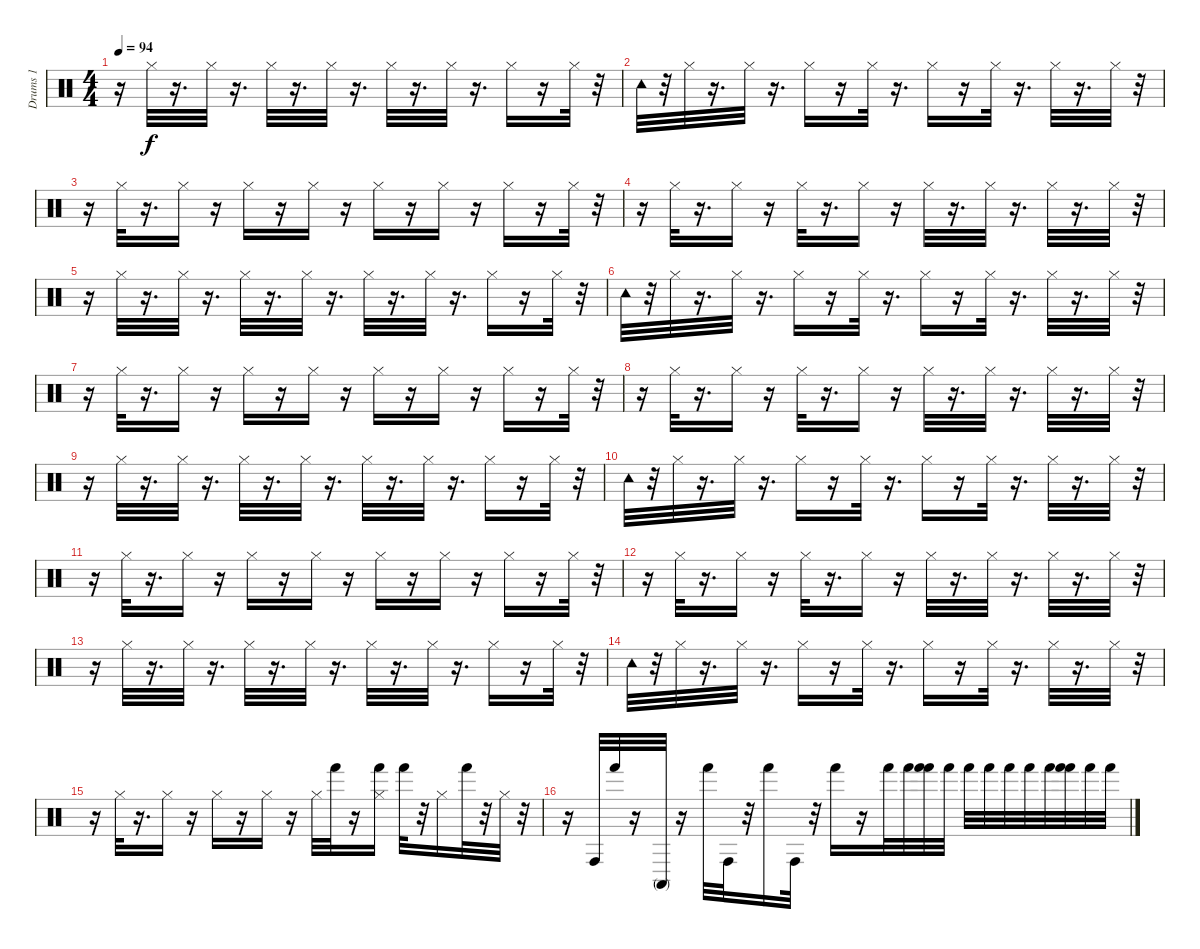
\track ("Drums 1 " "Drums 1 ") {instrument percussion}
\staff {score}
\articulation defaults
\ts (4 4)
\tempo 94
\clef neutral
\ks c
r.16{dy f} "Hi-Hat (closed)".32 r.16{d} "Hi-Hat (closed)".32 r.16{d} "Hi-Hat (closed)".32 r.16{d} "Hi-Hat (closed)".32 r.16{d} "Hi-Hat (closed)".32 r.16{d} "Hi-Hat (closed)".32 r.16{d} "Hi-Hat (closed)".16 r.16 "Hi-Hat (closed)".32 r.32 |
"Tambourine (hit)".32 r.32 "Hi-Hat (closed)".32 r.16{d} "Hi-Hat (closed)".32 r.16{d} "Hi-Hat (closed)".16 r.16 "Hi-Hat (closed)".32 r.16{d} "Hi-Hat (closed)".16 r.16 "Hi-Hat (closed)".32 r.16{d} "Hi-Hat (closed)".32 r.16{d} "Hi-Hat (closed)".32 r.32 |
r.16 "Hi-Hat (closed)".32 r.16{d} "Hi-Hat (closed)".16 r.16 "Hi-Hat (closed)".16 r.16 "Hi-Hat (closed)".16 r.16 "Hi-Hat (closed)".16 r.16 "Hi-Hat (closed)".16 r.16 "Hi-Hat (closed)".16 r.16 "Hi-Hat (closed)".32 r.32 |
r.16 "Hi-Hat (closed)".32 r.16{d} "Hi-Hat (closed)".16 r.16 "Hi-Hat (closed)".32 r.16{d} "Hi-Hat (closed)".16 r.16 "Hi-Hat (closed)".32 r.16{d} "Hi-Hat (closed)".32 r.16{d} "Hi-Hat (closed)".32 r.16{d} "Hi-Hat (closed)".32 r.32 |
r.16 "Hi-Hat (closed)".32 r.16{d} "Hi-Hat (closed)".32 r.16{d} "Hi-Hat (closed)".32 r.16{d} "Hi-Hat (closed)".32 r.16{d} "Hi-Hat (closed)".32 r.16{d} "Hi-Hat (closed)".32 r.16{d} "Hi-Hat (closed)".16 r.16 "Hi-Hat (closed)".32 r.32 |
"Tambourine (hit)".32 r.32 "Hi-Hat (closed)".32 r.16{d} "Hi-Hat (closed)".32 r.16{d} "Hi-Hat (closed)".16 r.16 "Hi-Hat (closed)".32 r.16{d} "Hi-Hat (closed)".16 r.16 "Hi-Hat (closed)".32 r.16{d} "Hi-Hat (closed)".32 r.16{d} "Hi-Hat (closed)".32 r.32 |
r.16 "Hi-Hat (closed)".32 r.16{d} "Hi-Hat (closed)".16 r.16 "Hi-Hat (closed)".16 r.16 "Hi-Hat (closed)".16 r.16 "Hi-Hat (closed)".16 r.16 "Hi-Hat (closed)".16 r.16 "Hi-Hat (closed)".16 r.16 "Hi-Hat (closed)".32 r.32 |
r.16 "Hi-Hat (closed)".32 r.16{d} "Hi-Hat (closed)".16 r.16 "Hi-Hat (closed)".32 r.16{d} "Hi-Hat (closed)".16 r.16 "Hi-Hat (closed)".32 r.16{d} "Hi-Hat (closed)".32 r.16{d} "Hi-Hat (closed)".32 r.16{d} "Hi-Hat (closed)".32 r.32 |
r.16 "Hi-Hat (closed)".32 r.16{d} "Hi-Hat (closed)".32 r.16{d} "Hi-Hat (closed)".32 r.16{d} "Hi-Hat (closed)".32 r.16{d} "Hi-Hat (closed)".32 r.16{d} "Hi-Hat (closed)".32 r.16{d} "Hi-Hat (closed)".16 r.16 "Hi-Hat (closed)".32 r.32 |
"Tambourine (hit)".32 r.32 "Hi-Hat (closed)".32 r.16{d} "Hi-Hat (closed)".32 r.16{d} "Hi-Hat (closed)".16 r.16 "Hi-Hat (closed)".32 r.16{d} "Hi-Hat (closed)".16 r.16 "Hi-Hat (closed)".32 r.16{d} "Hi-Hat (closed)".32 r.16{d} "Hi-Hat (closed)".32 r.32 |
r.16 "Hi-Hat (closed)".32 r.16{d} "Hi-Hat (closed)".16 r.16 "Hi-Hat (closed)".16 r.16 "Hi-Hat (closed)".16 r.16 "Hi-Hat (closed)".16 r.16 "Hi-Hat (closed)".16 r.16 "Hi-Hat (closed)".16 r.16 "Hi-Hat (closed)".32 r.32 |
r.16 "Hi-Hat (closed)".32 r.16{d} "Hi-Hat (closed)".16 r.16 "Hi-Hat (closed)".32 r.16{d} "Hi-Hat (closed)".16 r.16 "Hi-Hat (closed)".32 r.16{d} "Hi-Hat (closed)".32 r.16{d} "Hi-Hat (closed)".32 r.16{d} "Hi-Hat (closed)".32 r.32 |
r.16 "Hi-Hat (closed)".32 r.16{d} "Hi-Hat (closed)".32 r.16{d} "Hi-Hat (closed)".32 r.16{d} "Hi-Hat (closed)".32 r.16{d} "Hi-Hat (closed)".32 r.16{d} "Hi-Hat (closed)".32 r.16{d} "Hi-Hat (closed)".16 r.16 "Hi-Hat (closed)".32 r.32 |
"Tambourine (hit)".32 r.32 "Hi-Hat (closed)".32 r.16{d} "Hi-Hat (closed)".32 r.16{d} "Hi-Hat (closed)".16 r.16 "Hi-Hat (closed)".32 r.16{d} "Hi-Hat (closed)".16 r.16 "Hi-Hat (closed)".32 r.16{d} "Hi-Hat (closed)".32 r.16{d} "Hi-Hat (closed)".32 r.32 |
r.16 "Hi-Hat (closed)".32 r.16{d} "Hi-Hat (closed)".16 r.16 "Hi-Hat (closed)".16 r.16 "Hi-Hat (closed)".16 r.16 "Hi-Hat (closed)".32 "Hand (hit)".32 r.16 ("Hi-Hat (closed)" "Hand (hit)").16 "Hand (hit)".32 r.32 "Hi-Hat (closed)".16 "Hand (hit)".32 r.32 "Hi-Hat (closed)".32 r.32 |
r.16 "Conga high (hit)".32 "Hand (hit)".32 r.16 "Conga high (mute)".32 r.16 "Hand (hit)".32 "Conga high (hit)".32 r.32 "Hand (hit)".16 "Conga high (hit)".32 r.32 "Hand (hit)".16 r.16 "Hand (hit)".32 "Hand (hit)".32 ("Hand (hit)" "Hand (hit)").32 "Hand (hit)".32 "Hand (hit)".32 "Hand (hit)".32 "Hand (hit)".32 "Hand (hit)".32 "Hand (hit)".32 ("Hand (hit)" "Hand (hit)").32 "Hand (hit)".32 "Hand (hit)".32
